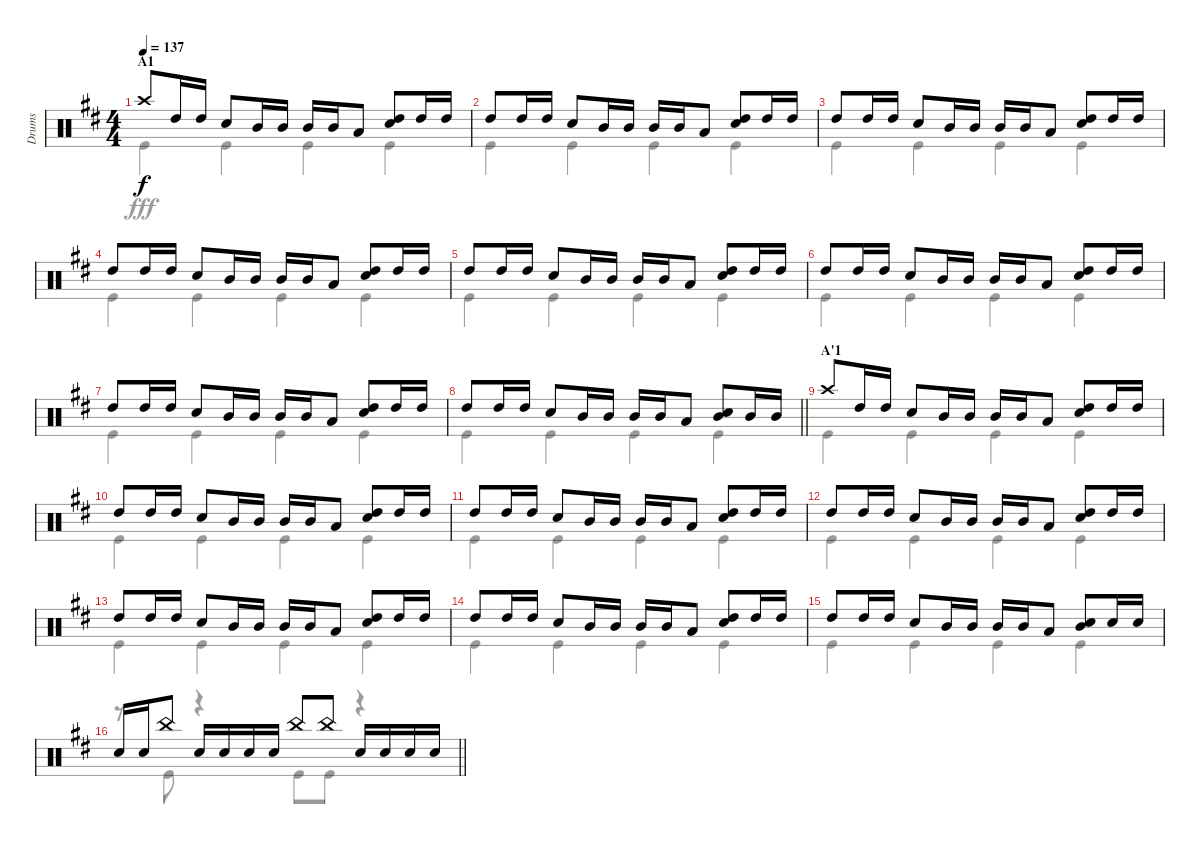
\track ("Drums" "Drums") {instrument percussion}
\staff {score}
\articulation defaults
\voice
\ts (4 4)
\section ("" "A1")
\tempo 137
\clef neutral
\ks d "Crash high (hit)".8{dy f} "High Tom (hit)".16 "High Tom (hit)".16 "Snare (hit) 2".8 "Mid Tom (hit)".16 "Mid Tom (hit)".16 "Mid Tom (hit)".16 "Mid Tom (hit)".16 "Low Tom (hit)".8
("Snare (hit) 2" "High Tom (hit)").8 "High Tom (hit)".16 "High Tom (hit)".16 |
"High Tom (hit)".8 "High Tom (hit)".16 "High Tom (hit)".16 "Snare (hit) 2".8 "Mid Tom (hit)".16 "Mid Tom (hit)".16 "Mid Tom (hit)".16 "Mid Tom (hit)".16 "Low Tom (hit)".8 ("Snare (hit) 2" "High Tom (hit)").8 "High Tom (hit)".16 "High Tom (hit)".16 |
"High Tom (hit)".8 "High Tom (hit)".16 "High Tom (hit)".16 "Snare (hit) 2".8 "Mid Tom (hit)".16 "Mid Tom (hit)".16 "Mid Tom (hit)".16 "Mid Tom (hit)".16 "Low Tom (hit)".8 ("Snare (hit) 2" "High Tom (hit)").8 "High Tom (hit)".16 "High Tom (hit)".16 |
"High Tom (hit)".8 "High Tom (hit)".16 "High Tom (hit)".16 "Snare (hit) 2".8 "Mid Tom (hit)".16 "Mid Tom (hit)".16 "Mid Tom (hit)".16 "Mid Tom (hit)".16 "Low Tom (hit)".8 ("Snare (hit) 2" "High Tom (hit)").8 "High Tom (hit)".16 "High Tom (hit)".16 |
"High Tom (hit)".8 "High Tom (hit)".16 "High Tom (hit)".16 "Snare (hit) 2".8 "Mid Tom (hit)".16 "Mid Tom (hit)".16 "Mid Tom (hit)".16 "Mid Tom (hit)".16 "Low Tom (hit)".8 ("Snare (hit) 2" "High Tom (hit)").8 "High Tom (hit)".16 "High Tom (hit)".16 |
"High Tom (hit)".8 "High Tom (hit)".16 "High Tom (hit)".16 "Snare (hit) 2".8 "Mid Tom (hit)".16 "Mid Tom (hit)".16 "Mid Tom (hit)".16 "Mid Tom (hit)".16 "Low Tom (hit)".8 ("Snare (hit) 2" "High Tom (hit)").8 "High Tom (hit)".16 "High Tom (hit)".16 |
"High Tom (hit)".8 "High Tom (hit)".16 "High Tom (hit)".16 "Snare (hit) 2".8 "Mid Tom (hit)".16 "Mid Tom (hit)".16 "Mid Tom (hit)".16 "Mid Tom (hit)".16 "Low Tom (hit)".8 ("Snare (hit) 2" "High Tom (hit)").8 "High Tom (hit)".16 "High Tom (hit)".16 |
\barLineRight lightlight "High Tom (hit)".8 "High Tom (hit)".16 "High Tom (hit)".16 "Snare (hit) 2".8 "Mid Tom (hit)".16 "Mid Tom (hit)".16 "Mid Tom (hit)".16 "Mid Tom (hit)".16 "Low Tom (hit)".8
("Snare (hit) 2" "Mid Tom (hit)").8 "Mid Tom (hit)".16 "Mid Tom (hit)".16 |
\section ("" "A'1")
"Crash high (hit)".8 "High Tom (hit)".16 "High Tom (hit)".16 "Snare (hit) 2".8 "Mid Tom (hit)".16 "Mid Tom (hit)".16 "Mid Tom (hit)".16 "Mid Tom (hit)".16 "Low Tom (hit)".8 ("Snare (hit) 2" "High Tom (hit)").8 "High Tom (hit)".16 "High Tom (hit)".16 |
"High Tom (hit)".8 "High Tom (hit)".16 "High Tom (hit)".16 "Snare (hit) 2".8 "Mid Tom (hit)".16 "Mid Tom (hit)".16 "Mid Tom (hit)".16 "Mid Tom (hit)".16 "Low Tom (hit)".8 ("Snare (hit) 2" "High Tom (hit)").8 "High Tom (hit)".16 "High Tom (hit)".16 |
"High Tom (hit)".8 "High Tom (hit)".16 "High Tom (hit)".16 "Snare (hit) 2".8 "Mid Tom (hit)".16 "Mid Tom (hit)".16 "Mid Tom (hit)".16 "Mid Tom (hit)".16 "Low Tom (hit)".8 ("Snare (hit) 2" "High Tom (hit)").8 "High Tom (hit)".16 "High Tom (hit)".16 |
"High Tom (hit)".8 "High Tom (hit)".16 "High Tom (hit)".16 "Snare (hit) 2".8 "Mid Tom (hit)".16 "Mid Tom (hit)".16 "Mid Tom (hit)".16 "Mid Tom (hit)".16 "Low Tom (hit)".8 ("Snare (hit) 2" "High Tom (hit)").8 "High Tom (hit)".16 "High Tom (hit)".16 |
"High Tom (hit)".8 "High Tom (hit)".16 "High Tom (hit)".16 "Snare (hit) 2".8 "Mid Tom (hit)".16 "Mid Tom (hit)".16 "Mid Tom (hit)".16 "Mid Tom (hit)".16 "Low Tom (hit)".8 ("Snare (hit) 2" "High Tom (hit)").8 "High Tom (hit)".16 "High Tom (hit)".16 |
"High Tom (hit)".8 "High Tom (hit)".16 "High Tom (hit)".16 "Snare (hit) 2".8 "Mid Tom (hit)".16 "Mid Tom (hit)".16 "Mid Tom (hit)".16 "Mid Tom (hit)".16 "Low Tom (hit)".8 ("Snare (hit) 2" "High Tom (hit)").8 "High Tom (hit)".16 "High Tom (hit)".16 |
"High Tom (hit)".8 "High Tom (hit)".16 "High Tom (hit)".16 "Snare (hit) 2".8 "Mid Tom (hit)".16 "Mid Tom (hit)".16 "Mid Tom (hit)".16 "Mid Tom (hit)".16 "Low Tom (hit)".8 ("Snare (hit) 2" "Mid Tom (hit)").8 "Snare (hit) 2".16 "Snare (hit) 2".16 |
\barLineRight lightlight "Snare (hit) 2".16 "Snare (hit) 2".16 "China (hit)".8 "Snare (hit) 2".16 "Snare (hit) 2".16 "Snare (hit) 2".16 "Snare (hit) 2".16 "China (hit)".8 "China (hit)".8 "Snare (hit) 2".16 "Snare (hit) 2".16 "Snare (hit) 2".16 "Snare (hit) 2".16
\voice
\clef neutral
\ottava regular
\simile none
\ks d "Kick (hit)".4{dy fff} "Kick (hit)".4 "Kick (hit)".4 "Kick (hit)".4
|
"Kick (hit)".4 "Kick (hit)".4 "Kick (hit)".4 "Kick (hit)".4 |
"Kick (hit)".4 "Kick (hit)".4 "Kick (hit)".4 "Kick (hit)".4 |
"Kick (hit)".4 "Kick (hit)".4 "Kick (hit)".4 "Kick (hit)".4 |
"Kick (hit)".4 "Kick (hit)".4 "Kick (hit)".4 "Kick (hit)".4 |
"Kick (hit)".4 "Kick (hit)".4 "Kick (hit)".4 "Kick (hit)".4 |
"Kick (hit)".4 "Kick (hit)".4 "Kick (hit)".4 "Kick (hit)".4 |
\barLineRight lightlight "Kick (hit)".4 "Kick (hit)".4 "Kick (hit)".4 "Kick (hit)".4
|
"Kick (hit)".4 "Kick (hit)".4 "Kick (hit)".4 "Kick (hit)".4 |
"Kick (hit)".4 "Kick (hit)".4 "Kick (hit)".4 "Kick (hit)".4 |
"Kick (hit)".4 "Kick (hit)".4 "Kick (hit)".4 "Kick (hit)".4 |
"Kick (hit)".4 "Kick (hit)".4 "Kick (hit)".4 "Kick (hit)".4 |
"Kick (hit)".4 "Kick (hit)".4 "Kick (hit)".4 "Kick (hit)".4 |
"Kick (hit)".4 "Kick (hit)".4 "Kick (hit)".4 "Kick (hit)".4 |
"Kick (hit)".4 "Kick (hit)".4 "Kick (hit)".4 "Kick (hit)".4 |
\barLineRight lightlight
r.8 "Kick (hit)".8 r.4 "Kick (hit)".8 "Kick (hit)".8 r.4
